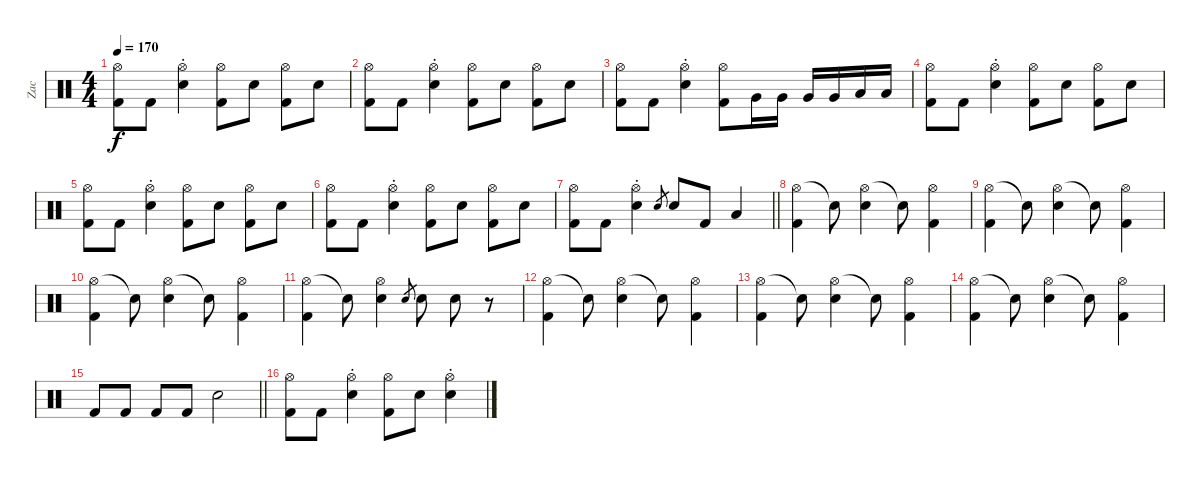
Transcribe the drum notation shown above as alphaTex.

\track ("Zac" "Zac") {instrument percussion}
\staff {score}
\articulation defaults
\ts (4 4)
\tempo 170
\clef neutral
\ks c
("Hi-Hat (open)" "Kick (hit) 2").8{dy f} "Kick (hit) 2".8 ("Hi-Hat (open)"{st} "Electric Snare (hit)").4 ("Hi-Hat (open)" "Kick (hit) 2").8 "Electric Snare (hit)".8 ("Hi-Hat (open)" "Kick (hit) 2").8 "Electric Snare (hit)".8 |
("Hi-Hat (open)" "Kick (hit) 2").8 "Kick (hit) 2".8 ("Hi-Hat (open)"{st} "Electric Snare (hit)").4 ("Hi-Hat (open)" "Kick (hit) 2").8 "Electric Snare (hit)".8 ("Hi-Hat (open)" "Kick (hit) 2").8 "Electric Snare (hit)".8 |
("Hi-Hat (open)" "Kick (hit) 2").8 "Kick (hit) 2".8 ("Hi-Hat (open)"{st} "Electric Snare (hit)").4 ("Hi-Hat (open)" "Kick (hit) 2").8 "Very Low Tom (hit)".16 "Very Low Tom (hit)".16 "Very Low Tom (hit)".16 "Very Low Tom (hit)".16 "Low Floor Tom (hit)".16 "Low Floor Tom (hit)".16 |
("Hi-Hat (open)" "Kick (hit) 2").8 "Kick (hit) 2".8 ("Hi-Hat (open)"{st} "Electric Snare (hit)").4 ("Hi-Hat (open)" "Kick (hit) 2").8 "Electric Snare (hit)".8 ("Hi-Hat (open)" "Kick (hit) 2").8 "Electric Snare (hit)".8 |
("Hi-Hat (open)" "Kick (hit) 2").8 "Kick (hit) 2".8 ("Hi-Hat (open)"{st} "Electric Snare (hit)").4 ("Hi-Hat (open)" "Kick (hit) 2").8 "Electric Snare (hit)".8 ("Hi-Hat (open)" "Kick (hit) 2").8 "Electric Snare (hit)".8 |
("Hi-Hat (open)" "Kick (hit) 2").8 "Kick (hit) 2".8 ("Hi-Hat (open)"{st} "Electric Snare (hit)").4 ("Hi-Hat (open)" "Kick (hit) 2").8 "Electric Snare (hit)".8 ("Hi-Hat (open)" "Kick (hit) 2").8 "Electric Snare (hit)".8 |
\barLineRight lightlight
("Hi-Hat (open)" "Kick (hit) 2").8 "Kick (hit) 2".8 ("Hi-Hat (open)"{st} "Electric Snare (hit)").4 "Electric Snare (hit)".8{gr} "Electric Snare (hit)".8 "Kick (hit) 2".8 "Low Floor Tom (hit)".4 |
\section ("" "")
("Hi-Hat (open)" "Kick (hit) 2").4 "Snare (hit)"{t}.8 ("Hi-Hat (open)" "Electric Snare (hit)").4 "Snare (hit)"{t}.8 ("Hi-Hat (open)" "Kick (hit) 2").4 |
("Hi-Hat (open)" "Kick (hit) 2").4 "Snare (hit)"{t}.8 ("Hi-Hat (open)" "Electric Snare (hit)").4 "Snare (hit)"{t}.8 ("Hi-Hat (open)" "Kick (hit) 2").4 |
("Hi-Hat (open)" "Kick (hit) 2").4 "Snare (hit)"{t}.8 ("Hi-Hat (open)" "Electric Snare (hit)").4 "Snare (hit)"{t}.8 ("Hi-Hat (open)" "Kick (hit) 2").4 |
("Hi-Hat (open)" "Kick (hit) 2").4 "Snare (hit)"{t}.8 ("Hi-Hat (open)" "Electric Snare (hit)").4 "Electric Snare (hit)".8{gr} "Electric Snare (hit)".8 "Electric Snare (hit)".8 r.8 |
("Hi-Hat (open)" "Kick (hit) 2").4 "Snare (hit)"{t}.8 ("Hi-Hat (open)" "Electric Snare (hit)").4 "Snare (hit)"{t}.8 ("Hi-Hat (open)" "Kick (hit) 2").4 |
("Hi-Hat (open)" "Kick (hit) 2").4 "Snare (hit)"{t}.8 ("Hi-Hat (open)" "Electric Snare (hit)").4 "Snare (hit)"{t}.8 ("Hi-Hat (open)" "Kick (hit) 2").4 |
("Hi-Hat (open)" "Kick (hit) 2").4 "Snare (hit)"{t}.8 ("Hi-Hat (open)" "Electric Snare (hit)").4 "Snare (hit)"{t}.8 ("Hi-Hat (open)" "Kick (hit) 2").4 |
\barLineRight lightlight "Kick (hit) 2".8 "Kick (hit) 2".8 "Kick (hit) 2".8 "Kick (hit) 2".8 "Electric Snare (hit)".2
|
\section ("" "")
("Hi-Hat (open)" "Kick (hit) 2").8 "Kick (hit) 2".8 ("Hi-Hat (open)"{st} "Electric Snare (hit)").4 ("Hi-Hat (open)" "Kick (hit) 2").8 "Electric Snare (hit)".8 ("Hi-Hat (open)"{st} "Electric Snare (hit)").4
